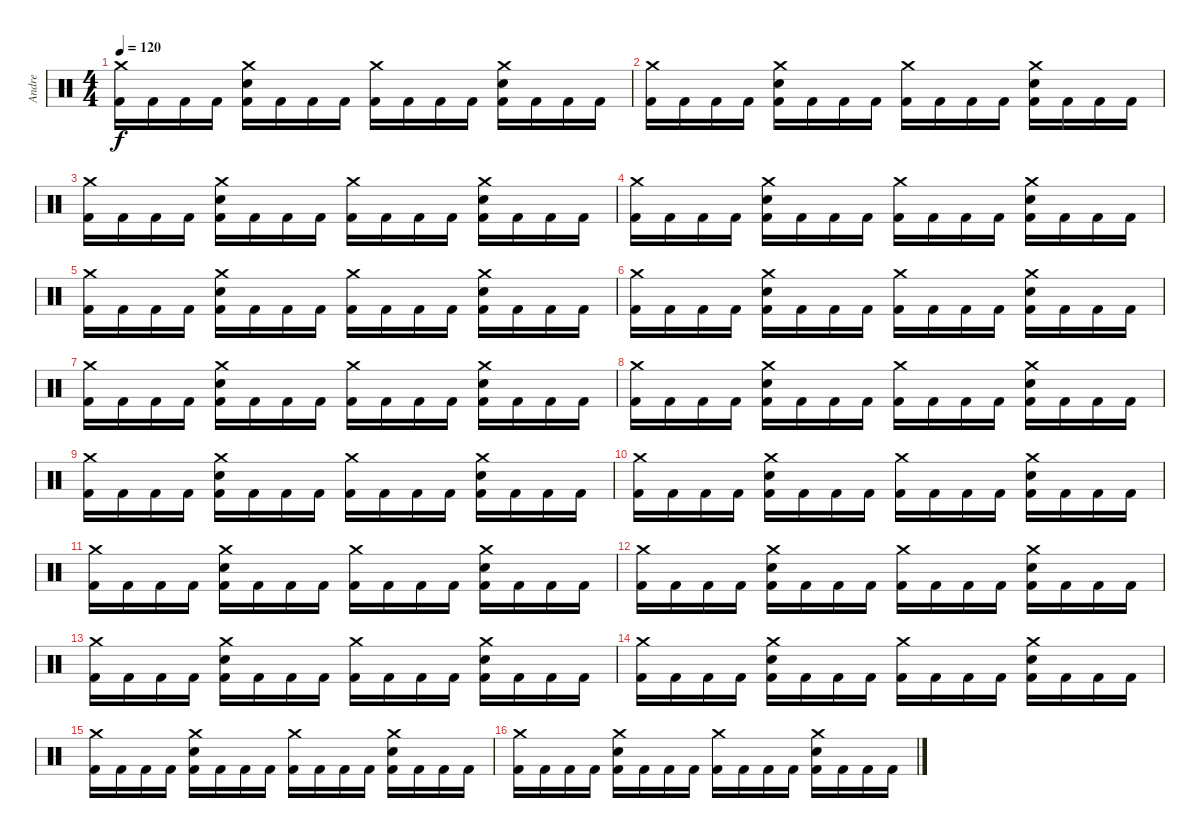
\track ("Andre" "Andre") {instrument percussion}
\staff {score}
\articulation defaults
\ts (4 4)
\tempo 120
\clef neutral
\ks c
("Crash medium (hit)" "Kick (hit) 2").16{dy f} "Kick (hit) 2".16 "Kick (hit) 2".16 "Kick (hit) 2".16 ("Crash medium (hit)" "Snare (hit) 2" "Kick (hit) 2").16 "Kick (hit) 2".16 "Kick (hit) 2".16 "Kick (hit) 2".16 ("Crash medium (hit)" "Kick (hit) 2").16 "Kick (hit) 2".16 "Kick (hit) 2".16 "Kick (hit) 2".16 ("Crash medium (hit)" "Snare (hit) 2" "Kick (hit) 2").16 "Kick (hit) 2".16 "Kick (hit) 2".16 "Kick (hit) 2".16 |
("Crash medium (hit)" "Kick (hit) 2").16 "Kick (hit) 2".16 "Kick (hit) 2".16 "Kick (hit) 2".16 ("Crash medium (hit)" "Snare (hit) 2" "Kick (hit) 2").16 "Kick (hit) 2".16 "Kick (hit) 2".16 "Kick (hit) 2".16 ("Crash medium (hit)" "Kick (hit) 2").16 "Kick (hit) 2".16 "Kick (hit) 2".16 "Kick (hit) 2".16 ("Crash medium (hit)" "Snare (hit) 2" "Kick (hit) 2").16 "Kick (hit) 2".16 "Kick (hit) 2".16 "Kick (hit) 2".16 |
("Crash medium (hit)" "Kick (hit) 2").16 "Kick (hit) 2".16 "Kick (hit) 2".16 "Kick (hit) 2".16 ("Crash medium (hit)" "Snare (hit) 2" "Kick (hit) 2").16 "Kick (hit) 2".16 "Kick (hit) 2".16 "Kick (hit) 2".16 ("Crash medium (hit)" "Kick (hit) 2").16 "Kick (hit) 2".16 "Kick (hit) 2".16 "Kick (hit) 2".16 ("Crash medium (hit)" "Snare (hit) 2" "Kick (hit) 2").16 "Kick (hit) 2".16 "Kick (hit) 2".16 "Kick (hit) 2".16 |
("Crash medium (hit)" "Kick (hit) 2").16 "Kick (hit) 2".16 "Kick (hit) 2".16 "Kick (hit) 2".16 ("Crash medium (hit)" "Snare (hit) 2" "Kick (hit) 2").16 "Kick (hit) 2".16 "Kick (hit) 2".16 "Kick (hit) 2".16 ("Crash medium (hit)" "Kick (hit) 2").16 "Kick (hit) 2".16 "Kick (hit) 2".16 "Kick (hit) 2".16 ("Crash medium (hit)" "Snare (hit) 2" "Kick (hit) 2").16 "Kick (hit) 2".16 "Kick (hit) 2".16 "Kick (hit) 2".16 |
("Crash medium (hit)" "Kick (hit) 2").16 "Kick (hit) 2".16 "Kick (hit) 2".16 "Kick (hit) 2".16 ("Crash medium (hit)" "Snare (hit) 2" "Kick (hit) 2").16 "Kick (hit) 2".16 "Kick (hit) 2".16 "Kick (hit) 2".16 ("Crash medium (hit)" "Kick (hit) 2").16 "Kick (hit) 2".16 "Kick (hit) 2".16 "Kick (hit) 2".16 ("Crash medium (hit)" "Snare (hit) 2" "Kick (hit) 2").16 "Kick (hit) 2".16 "Kick (hit) 2".16 "Kick (hit) 2".16 |
("Crash medium (hit)" "Kick (hit) 2").16 "Kick (hit) 2".16 "Kick (hit) 2".16 "Kick (hit) 2".16 ("Crash medium (hit)" "Snare (hit) 2" "Kick (hit) 2").16 "Kick (hit) 2".16 "Kick (hit) 2".16 "Kick (hit) 2".16 ("Crash medium (hit)" "Kick (hit) 2").16 "Kick (hit) 2".16 "Kick (hit) 2".16 "Kick (hit) 2".16 ("Crash medium (hit)" "Snare (hit) 2" "Kick (hit) 2").16 "Kick (hit) 2".16 "Kick (hit) 2".16 "Kick (hit) 2".16 |
("Crash medium (hit)" "Kick (hit) 2").16 "Kick (hit) 2".16 "Kick (hit) 2".16 "Kick (hit) 2".16 ("Crash medium (hit)" "Snare (hit) 2" "Kick (hit) 2").16 "Kick (hit) 2".16 "Kick (hit) 2".16 "Kick (hit) 2".16 ("Crash medium (hit)" "Kick (hit) 2").16 "Kick (hit) 2".16 "Kick (hit) 2".16 "Kick (hit) 2".16 ("Crash medium (hit)" "Snare (hit) 2" "Kick (hit) 2").16 "Kick (hit) 2".16 "Kick (hit) 2".16 "Kick (hit) 2".16 |
("Crash medium (hit)" "Kick (hit) 2").16 "Kick (hit) 2".16 "Kick (hit) 2".16 "Kick (hit) 2".16 ("Crash medium (hit)" "Snare (hit) 2" "Kick (hit) 2").16 "Kick (hit) 2".16 "Kick (hit) 2".16 "Kick (hit) 2".16 ("Crash medium (hit)" "Kick (hit) 2").16 "Kick (hit) 2".16 "Kick (hit) 2".16 "Kick (hit) 2".16 ("Crash medium (hit)" "Snare (hit) 2" "Kick (hit) 2").16 "Kick (hit) 2".16 "Kick (hit) 2".16 "Kick (hit) 2".16 |
("Crash medium (hit)" "Kick (hit) 2").16 "Kick (hit) 2".16 "Kick (hit) 2".16 "Kick (hit) 2".16 ("Crash medium (hit)" "Snare (hit) 2" "Kick (hit) 2").16 "Kick (hit) 2".16 "Kick (hit) 2".16 "Kick (hit) 2".16 ("Crash medium (hit)" "Kick (hit) 2").16 "Kick (hit) 2".16 "Kick (hit) 2".16 "Kick (hit) 2".16 ("Crash medium (hit)" "Snare (hit) 2" "Kick (hit) 2").16 "Kick (hit) 2".16 "Kick (hit) 2".16 "Kick (hit) 2".16 |
("Crash medium (hit)" "Kick (hit) 2").16 "Kick (hit) 2".16 "Kick (hit) 2".16 "Kick (hit) 2".16 ("Crash medium (hit)" "Snare (hit) 2" "Kick (hit) 2").16 "Kick (hit) 2".16 "Kick (hit) 2".16 "Kick (hit) 2".16 ("Crash medium (hit)" "Kick (hit) 2").16 "Kick (hit) 2".16 "Kick (hit) 2".16 "Kick (hit) 2".16 ("Crash medium (hit)" "Snare (hit) 2" "Kick (hit) 2").16 "Kick (hit) 2".16 "Kick (hit) 2".16 "Kick (hit) 2".16 |
("Crash medium (hit)" "Kick (hit) 2").16 "Kick (hit) 2".16 "Kick (hit) 2".16 "Kick (hit) 2".16 ("Crash medium (hit)" "Snare (hit) 2" "Kick (hit) 2").16 "Kick (hit) 2".16 "Kick (hit) 2".16 "Kick (hit) 2".16 ("Crash medium (hit)" "Kick (hit) 2").16 "Kick (hit) 2".16 "Kick (hit) 2".16 "Kick (hit) 2".16 ("Crash medium (hit)" "Snare (hit) 2" "Kick (hit) 2").16 "Kick (hit) 2".16 "Kick (hit) 2".16 "Kick (hit) 2".16 |
("Crash medium (hit)" "Kick (hit) 2").16 "Kick (hit) 2".16 "Kick (hit) 2".16 "Kick (hit) 2".16 ("Crash medium (hit)" "Snare (hit) 2" "Kick (hit) 2").16 "Kick (hit) 2".16 "Kick (hit) 2".16 "Kick (hit) 2".16 ("Crash medium (hit)" "Kick (hit) 2").16 "Kick (hit) 2".16 "Kick (hit) 2".16 "Kick (hit) 2".16 ("Crash medium (hit)" "Snare (hit) 2" "Kick (hit) 2").16 "Kick (hit) 2".16 "Kick (hit) 2".16 "Kick (hit) 2".16 |
("Crash medium (hit)" "Kick (hit) 2").16 "Kick (hit) 2".16 "Kick (hit) 2".16 "Kick (hit) 2".16 ("Crash medium (hit)" "Snare (hit) 2" "Kick (hit) 2").16 "Kick (hit) 2".16 "Kick (hit) 2".16 "Kick (hit) 2".16 ("Crash medium (hit)" "Kick (hit) 2").16 "Kick (hit) 2".16 "Kick (hit) 2".16 "Kick (hit) 2".16 ("Crash medium (hit)" "Snare (hit) 2" "Kick (hit) 2").16 "Kick (hit) 2".16 "Kick (hit) 2".16 "Kick (hit) 2".16 |
("Crash medium (hit)" "Kick (hit) 2").16 "Kick (hit) 2".16 "Kick (hit) 2".16 "Kick (hit) 2".16 ("Crash medium (hit)" "Snare (hit) 2" "Kick (hit) 2").16 "Kick (hit) 2".16 "Kick (hit) 2".16 "Kick (hit) 2".16 ("Crash medium (hit)" "Kick (hit) 2").16 "Kick (hit) 2".16 "Kick (hit) 2".16 "Kick (hit) 2".16 ("Crash medium (hit)" "Snare (hit) 2" "Kick (hit) 2").16 "Kick (hit) 2".16 "Kick (hit) 2".16 "Kick (hit) 2".16 |
("Crash medium (hit)" "Kick (hit) 2").16 "Kick (hit) 2".16 "Kick (hit) 2".16 "Kick (hit) 2".16 ("Crash medium (hit)" "Snare (hit) 2" "Kick (hit) 2").16 "Kick (hit) 2".16 "Kick (hit) 2".16 "Kick (hit) 2".16 ("Crash medium (hit)" "Kick (hit) 2").16 "Kick (hit) 2".16 "Kick (hit) 2".16 "Kick (hit) 2".16 ("Crash medium (hit)" "Snare (hit) 2" "Kick (hit) 2").16 "Kick (hit) 2".16 "Kick (hit) 2".16 "Kick (hit) 2".16 |
("Crash medium (hit)" "Kick (hit) 2").16 "Kick (hit) 2".16 "Kick (hit) 2".16 "Kick (hit) 2".16 ("Crash medium (hit)" "Snare (hit) 2" "Kick (hit) 2").16 "Kick (hit) 2".16 "Kick (hit) 2".16 "Kick (hit) 2".16 ("Crash medium (hit)" "Kick (hit) 2").16 "Kick (hit) 2".16 "Kick (hit) 2".16 "Kick (hit) 2".16 ("Crash medium (hit)" "Snare (hit) 2" "Kick (hit) 2").16 "Kick (hit) 2".16 "Kick (hit) 2".16 "Kick (hit) 2".16
